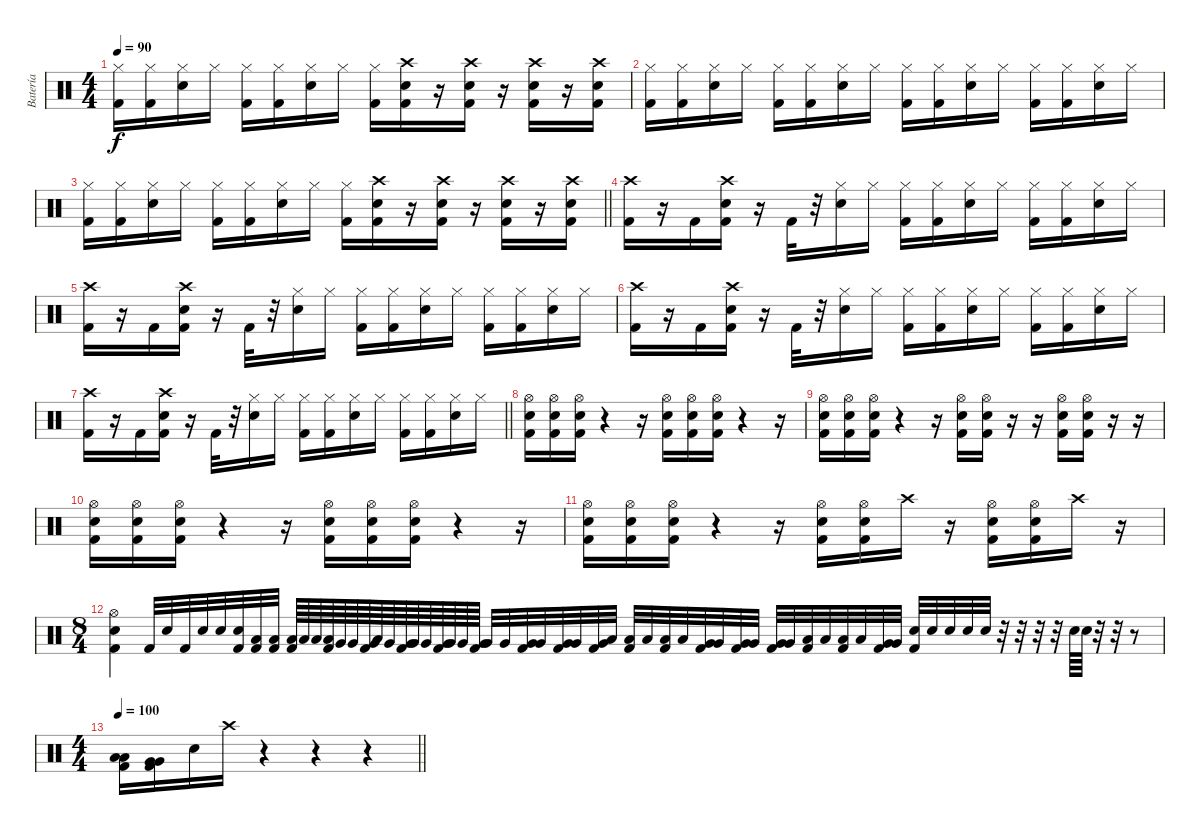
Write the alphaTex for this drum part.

\track ("Batería   (Jony)" "Batería   ") {instrument percussion}
\staff {score}
\articulation defaults
\ts (4 4)
\tempo 90
\clef neutral
\ks c
("Hi-Hat (closed)" "Kick (hit) 2").16{dy f} ("Hi-Hat (closed)" "Kick (hit) 2").16 ("Hi-Hat (closed)" "Electric Snare (hit)").16 "Hi-Hat (closed)".16 ("Hi-Hat (closed)" "Kick (hit) 2").16 ("Hi-Hat (closed)" "Kick (hit) 2").16 ("Hi-Hat (closed)" "Electric Snare (hit)").16 "Hi-Hat (closed)".16 ("Hi-Hat (closed)" "Kick (hit) 2").16 ("Crash high (hit)" "Electric Snare (hit)" "Kick (hit) 2").16 r.16 ("Crash high (hit)" "Electric Snare (hit)" "Kick (hit) 2").16 r.16 ("Crash high (hit)" "Electric Snare (hit)" "Kick (hit) 2").16 r.16 ("Crash high (hit)" "Electric Snare (hit)" "Kick (hit) 2").16 |
("Hi-Hat (closed)" "Kick (hit) 2").16 ("Hi-Hat (closed)" "Kick (hit) 2").16 ("Hi-Hat (closed)" "Electric Snare (hit)").16 "Hi-Hat (closed)".16 ("Hi-Hat (closed)" "Kick (hit) 2").16 ("Hi-Hat (closed)" "Kick (hit) 2").16 ("Hi-Hat (closed)" "Electric Snare (hit)").16 "Hi-Hat (closed)".16 ("Hi-Hat (closed)" "Kick (hit) 2").16 ("Hi-Hat (closed)" "Kick (hit) 2").16 ("Hi-Hat (closed)" "Electric Snare (hit)").16 "Hi-Hat (closed)".16 ("Hi-Hat (closed)" "Kick (hit) 2").16 ("Hi-Hat (closed)" "Kick (hit) 2").16 ("Hi-Hat (closed)" "Electric Snare (hit)").16 "Hi-Hat (closed)".16 |
\barLineRight lightlight
("Hi-Hat (closed)" "Kick (hit) 2").16 ("Hi-Hat (closed)" "Kick (hit) 2").16 ("Hi-Hat (closed)" "Electric Snare (hit)").16 "Hi-Hat (closed)".16 ("Hi-Hat (closed)" "Kick (hit) 2").16 ("Hi-Hat (closed)" "Kick (hit) 2").16 ("Hi-Hat (closed)" "Electric Snare (hit)").16 "Hi-Hat (closed)".16 ("Hi-Hat (closed)" "Kick (hit) 2").16 ("Crash high (hit)" "Electric Snare (hit)" "Kick (hit) 2").16 r.16 ("Crash high (hit)" "Electric Snare (hit)" "Kick (hit) 2").16 r.16 ("Crash high (hit)" "Electric Snare (hit)" "Kick (hit) 2").16 r.16 ("Crash high (hit)" "Electric Snare (hit)" "Kick (hit) 2").16 |
("Crash high (hit)" "Kick (hit) 2").16 r.16 "Kick (hit) 2".16 ("Crash high (hit)" "Electric Snare (hit)" "Kick (hit) 2").16 r.16 "Kick (hit) 2".32 r.32 ("Hi-Hat (closed)" "Electric Snare (hit)").16 "Hi-Hat (closed)".16 ("Hi-Hat (closed)" "Kick (hit) 2").16 ("Hi-Hat (closed)" "Kick (hit) 2").16 ("Hi-Hat (closed)" "Electric Snare (hit)").16 "Hi-Hat (closed)".16 ("Hi-Hat (closed)" "Kick (hit) 2").16 ("Hi-Hat (closed)" "Kick (hit) 2").16 ("Hi-Hat (closed)" "Electric Snare (hit)").16 "Hi-Hat (closed)".16 |
("Crash high (hit)" "Kick (hit) 2").16 r.16 "Kick (hit) 2".16 ("Crash high (hit)" "Electric Snare (hit)" "Kick (hit) 2").16 r.16 "Kick (hit) 2".32 r.32 ("Hi-Hat (closed)" "Electric Snare (hit)").16 "Hi-Hat (closed)".16 ("Hi-Hat (closed)" "Kick (hit) 2").16 ("Hi-Hat (closed)" "Kick (hit) 2").16 ("Hi-Hat (closed)" "Electric Snare (hit)").16 "Hi-Hat (closed)".16 ("Hi-Hat (closed)" "Kick (hit) 2").16 ("Hi-Hat (closed)" "Kick (hit) 2").16 ("Hi-Hat (closed)" "Electric Snare (hit)").16 "Hi-Hat (closed)".16 |
("Crash high (hit)" "Kick (hit) 2").16 r.16 "Kick (hit) 2".16 ("Crash high (hit)" "Electric Snare (hit)" "Kick (hit) 2").16 r.16 "Kick (hit) 2".32 r.32 ("Hi-Hat (closed)" "Electric Snare (hit)").16 "Hi-Hat (closed)".16 ("Hi-Hat (closed)" "Kick (hit) 2").16 ("Hi-Hat (closed)" "Kick (hit) 2").16 ("Hi-Hat (closed)" "Electric Snare (hit)").16 "Hi-Hat (closed)".16 ("Hi-Hat (closed)" "Kick (hit) 2").16 ("Hi-Hat (closed)" "Kick (hit) 2").16 ("Hi-Hat (closed)" "Electric Snare (hit)").16 "Hi-Hat (closed)".16 |
\barLineRight lightlight
("Crash high (hit)" "Kick (hit) 2").16 r.16 "Kick (hit) 2".16 ("Crash high (hit)" "Electric Snare (hit)" "Kick (hit) 2").16 r.16 "Kick (hit) 2".32 r.32 ("Hi-Hat (closed)" "Electric Snare (hit)").16 "Hi-Hat (closed)".16 ("Hi-Hat (closed)" "Kick (hit) 2").16 ("Hi-Hat (closed)" "Kick (hit) 2").16 ("Hi-Hat (closed)" "Electric Snare (hit)").16 "Hi-Hat (closed)".16 ("Hi-Hat (closed)" "Kick (hit) 2").16 ("Hi-Hat (closed)" "Kick (hit) 2").16 ("Hi-Hat (closed)" "Electric Snare (hit)").16 "Hi-Hat (closed)".16 |
("Hi-Hat (open)" "Electric Snare (hit)" "Kick (hit) 2").16 ("Hi-Hat (open)" "Electric Snare (hit)" "Kick (hit) 2").16 ("Hi-Hat (open)" "Electric Snare (hit)" "Kick (hit) 2").16 r.4 r.16 ("Hi-Hat (open)" "Electric Snare (hit)" "Kick (hit) 2").16 ("Hi-Hat (open)" "Electric Snare (hit)" "Kick (hit) 2").16 ("Hi-Hat (open)" "Electric Snare (hit)" "Kick (hit) 2").16 r.4 r.16 |
("Hi-Hat (open)" "Electric Snare (hit)" "Kick (hit) 2").16 ("Hi-Hat (open)" "Electric Snare (hit)" "Kick (hit) 2").16 ("Hi-Hat (open)" "Electric Snare (hit)" "Kick (hit) 2").16 r.4 r.16 ("Hi-Hat (open)" "Electric Snare (hit)" "Kick (hit) 2").16 ("Hi-Hat (open)" "Electric Snare (hit)" "Kick (hit) 2").16 r.16 r.16 ("Hi-Hat (open)" "Electric Snare (hit)" "Kick (hit) 2").16 ("Hi-Hat (open)" "Electric Snare (hit)" "Kick (hit) 2").16 r.16 r.16 |
("Hi-Hat (open)" "Electric Snare (hit)" "Kick (hit) 2").16 ("Hi-Hat (open)" "Electric Snare (hit)" "Kick (hit) 2").16 ("Hi-Hat (open)" "Electric Snare (hit)" "Kick (hit) 2").16 r.4 r.16 ("Hi-Hat (open)" "Electric Snare (hit)" "Kick (hit) 2").16 ("Hi-Hat (open)" "Electric Snare (hit)" "Kick (hit) 2").16 ("Hi-Hat (open)" "Electric Snare (hit)" "Kick (hit) 2").16 r.4 r.16 |
("Hi-Hat (open)" "Electric Snare (hit)" "Kick (hit) 2").16 ("Hi-Hat (open)" "Electric Snare (hit)" "Kick (hit) 2").16 ("Hi-Hat (open)" "Electric Snare (hit)" "Kick (hit) 2").16 r.4 r.16 ("Hi-Hat (open)" "Electric Snare (hit)" "Kick (hit) 2").16 ("Hi-Hat (open)" "Electric Snare (hit)" "Kick (hit) 2").16 "Crash high (hit)".16 r.16 ("Hi-Hat (open)" "Electric Snare (hit)" "Kick (hit) 2").16 ("Hi-Hat (open)" "Electric Snare (hit)" "Kick (hit) 2").16 "Crash high (hit)".16 r.16 |
\ts (8 4)
("Hi-Hat (open)" "Electric Snare (hit)" "Kick (hit) 2").4 "Kick (hit) 2".32 "Electric Snare (hit)".32 "Kick (hit) 2".32 "Electric Snare (hit)".32 "Electric Snare (hit)".32 ("Electric Snare (hit)" "Kick (hit) 2").32 ("Low Tom (hit)" "Kick (hit) 2").32 ("Low Tom (hit)" "Kick (hit) 2").32 ("Low Tom (hit)" "Kick (hit) 2").64 "Low Tom (hit)".64 "Low Tom (hit)".64 ("Low Tom (hit)" "Kick (hit) 2").64 "Very Low Tom (hit)".64 "Very Low Tom (hit)".64 ("Very Low Tom (hit)" "Kick (hit) 2").64 "Low Tom (hit)".64 "Very Low Tom (hit)".64 ("Very Low Tom (hit)" "Kick (hit) 2").64 "Very Low Tom (hit)".64 "Very Low Tom (hit)".64 ("Very Low Tom (hit)" "Kick (hit) 2").64 "Very Low Tom (hit)".64 "Very Low Tom (hit)".64 ("Very Low Tom (hit)" "Kick (hit) 2").64 "Very Low Tom (hit)".32 "Very Low Tom (hit)".32 ("Very Low Tom (hit)" "Kick (hit) 2").32 "Very Low Tom (hit)".32 ("Very Low Tom (hit)" "Kick (hit) 2").32 "Very Low Tom (hit)".32 ("Very Low Tom (hit)" "Kick (hit) 2").32 "Low Tom (hit)".32 ("Low Tom (hit)" "Kick (hit) 2").32 "Low Tom (hit)".32 ("Low Tom (hit)" "Kick (hit) 2").32 "Low Tom (hit)".32 ("Very Low Tom (hit)" "Kick (hit) 2").32 "Very Low Tom (hit)".32 ("Very Low Tom (hit)" "Kick (hit) 2").32 "Very Low Tom (hit)".32 ("Very Low Tom (hit)" "Kick (hit) 2").32 "Very Low Tom (hit)".32 ("Low Tom (hit)" "Kick (hit) 2").32 "Low Tom (hit)".32 ("Low Tom (hit)" "Kick (hit) 2").32 "Low Tom (hit)".32 ("Very Low Tom (hit)" "Kick (hit) 2").32 "Very Low Tom (hit)".32 ("Electric Snare (hit)" "Kick (hit) 2").32 "Electric Snare (hit)".32 "Electric Snare (hit)".32 "Electric Snare (hit)".32 "Electric Snare (hit)".32 r.32 r.32 r.32 r.32 "Electric Snare (hit)".64 "Electric Snare (hit)".64 r.32 r.32 r.8 |
\ts (4 4)
\tempo 100
\barLineRight lightlight
("Low Tom (hit)" "Low Tom (hit)" "Kick (hit) 2").16 ("Very Low Tom (hit)" "Very Low Tom (hit)" "Kick (hit) 2").16 "Electric Snare (hit)".16 "Crash high (hit)".16 r.4 r.4 r.4
